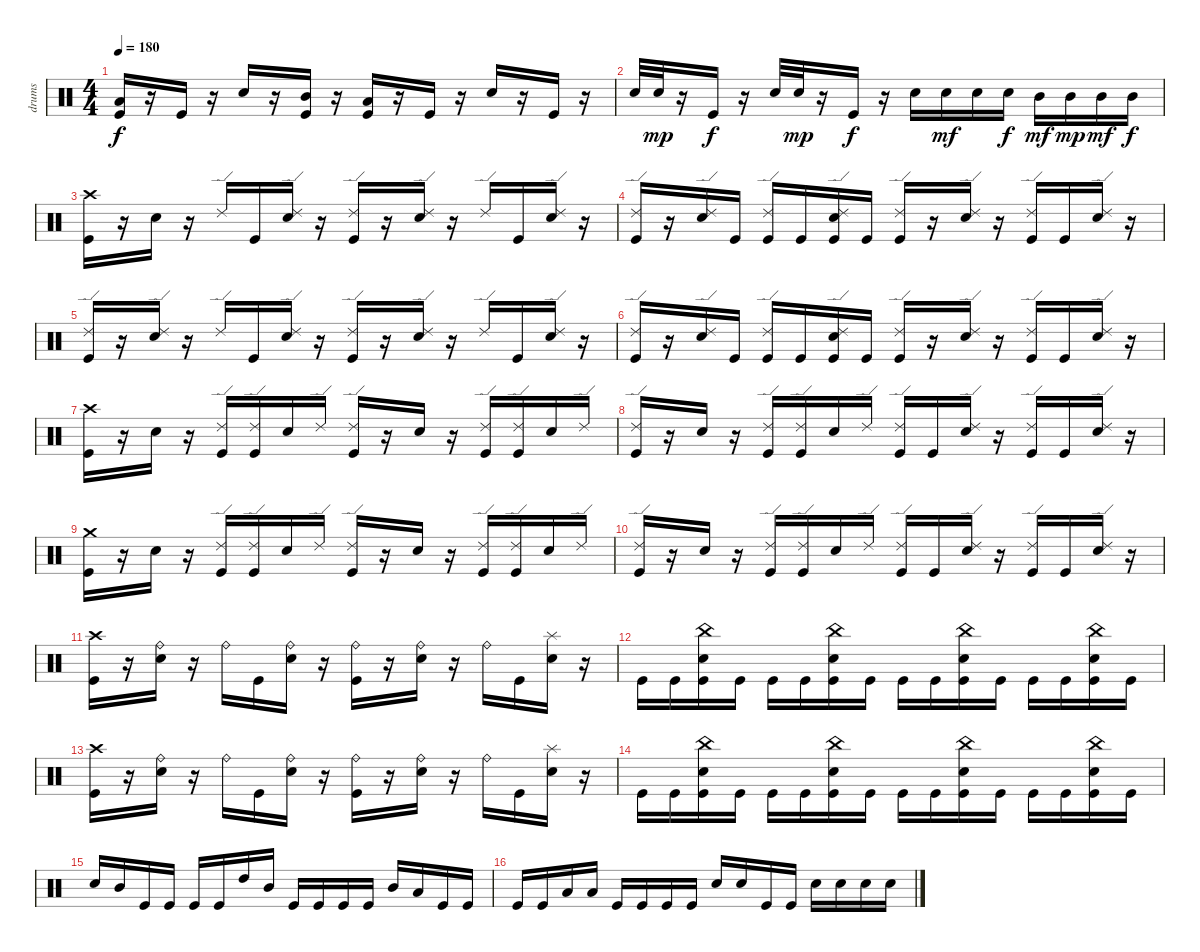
\track ("drums" "drums") {instrument percussion}
\staff {score}
\articulation defaults
\ts (4 4)
\tempo 180
\clef neutral
\ks c
("Low Tom (hit)" "Kick (hit)").16{dy f} r.16 "Kick (hit)".16 r.16 "Snare (hit) 2".16 r.16 ("Mid Tom (hit)" "Kick (hit)").16 r.16 ("Low Tom (hit)" "Kick (hit)").16 r.16 "Kick (hit)".16 r.16 "Snare (hit) 2".16 r.16 "Kick (hit)".16 r.16 |
"Snare (hit) 2".32 "Snare (hit) 2".32{dy mp} r.16 "Kick (hit)".16{dy f} r.16 "Snare (hit) 2".32 "Snare (hit) 2".32{dy mp} r.16 "Kick (hit)".16{dy f} r.16 "Snare (hit) 2".16 "Snare (hit) 2".16{dy mf} "Snare (hit) 2".16 "Snare (hit) 2".16{dy f} "Mid Tom (hit)".16{dy mf} "Mid Tom (hit)".16{dy mp} "Mid Tom (hit)".16{dy mf} "Mid Tom (hit)".16{dy f} |
("Crash high (hit)" "Kick (hit)").16 r.16 "Snare (hit) 2".16 r.16 "Ride (edge) 2".16 "Kick (hit)".16 ("Ride (edge) 2" "Snare (hit) 2").16 r.16 ("Kick (hit)" "Ride (edge) 2").16 r.16 ("Snare (hit) 2" "Ride (edge) 2").16 r.16 "Ride (edge) 2".16 "Kick (hit)".16 ("Snare (hit) 2" "Ride (edge) 2").16 r.16 |
("Ride (edge) 2" "Kick (hit)").16 r.16 ("Ride (edge) 2" "Snare (hit) 2").16 "Kick (hit)".16 ("Kick (hit)" "Ride (edge) 2").16 "Kick (hit)".16 ("Kick (hit)" "Ride (edge) 2" "Snare (hit) 2").16 "Kick (hit)".16 ("Kick (hit)" "Ride (edge) 2").16 r.16 ("Ride (edge) 2" "Snare (hit) 2").16 r.16 ("Kick (hit)" "Ride (edge) 2").16 "Kick (hit)".16 ("Ride (edge) 2" "Snare (hit) 2").16 r.16 |
("Ride (edge) 2" "Kick (hit)").16 r.16 ("Ride (edge) 2" "Snare (hit) 2").16 r.16 "Ride (edge) 2".16 "Kick (hit)".16 ("Ride (edge) 2" "Snare (hit) 2").16 r.16 ("Kick (hit)" "Ride (edge) 2").16 r.16 ("Snare (hit) 2" "Ride (edge) 2").16 r.16 "Ride (edge) 2".16 "Kick (hit)".16 ("Snare (hit) 2" "Ride (edge) 2").16 r.16 |
("Ride (edge) 2" "Kick (hit)").16 r.16 ("Ride (edge) 2" "Snare (hit) 2").16 "Kick (hit)".16 ("Kick (hit)" "Ride (edge) 2").16 "Kick (hit)".16 ("Kick (hit)" "Ride (edge) 2" "Snare (hit) 2").16 "Kick (hit)".16 ("Kick (hit)" "Ride (edge) 2").16 r.16 ("Ride (edge) 2" "Snare (hit) 2").16 r.16 ("Kick (hit)" "Ride (edge) 2").16 "Kick (hit)".16 ("Ride (edge) 2" "Snare (hit) 2").16 r.16 |
("Crash high (hit)" "Kick (hit)").16 r.16 "Snare (hit) 2".16 r.16 ("Ride (edge) 2" "Kick (hit)").16 ("Ride (edge) 2" "Kick (hit)").16 "Snare (hit) 2".16 "Ride (edge) 2".16 ("Ride (edge) 2" "Kick (hit)").16 r.16 "Snare (hit) 2".16 r.16 ("Ride (edge) 2" "Kick (hit)").16 ("Ride (edge) 2" "Kick (hit)").16 "Snare (hit) 2".16 "Ride (edge) 2".16 |
("Kick (hit)" "Ride (edge) 2").16 r.16 "Snare (hit) 2".16 r.16 ("Ride (edge) 2" "Kick (hit)").16 ("Ride (edge) 2" "Kick (hit)").16 "Snare (hit) 2".16 "Ride (edge) 2".16 ("Ride (edge) 2" "Kick (hit)").16 "Kick (hit)".16 ("Ride (edge) 2" "Snare (hit) 2").16 r.16 ("Ride (edge) 2" "Kick (hit)").16 "Kick (hit)".16 ("Ride (edge) 2" "Snare (hit) 2").16 r.16 |
("Crash medium (hit)" "Kick (hit)").16 r.16 "Snare (hit) 2".16 r.16 ("Ride (edge) 2" "Kick (hit)").16 ("Ride (edge) 2" "Kick (hit)").16 "Snare (hit) 2".16 "Ride (edge) 2".16 ("Ride (edge) 2" "Kick (hit)").16 r.16 "Snare (hit) 2".16 r.16 ("Ride (edge) 2" "Kick (hit)").16 ("Ride (edge) 2" "Kick (hit)").16 "Snare (hit) 2".16 "Ride (edge) 2".16 |
("Kick (hit)" "Ride (edge) 2").16 r.16 "Snare (hit) 2".16 r.16 ("Ride (edge) 2" "Kick (hit)").16 ("Ride (edge) 2" "Kick (hit)").16 "Snare (hit) 2".16 "Ride (edge) 2".16 ("Ride (edge) 2" "Kick (hit)").16 "Kick (hit)".16 ("Ride (edge) 2" "Snare (hit) 2").16 r.16 ("Ride (edge) 2" "Kick (hit)").16 "Kick (hit)".16 ("Ride (edge) 2" "Snare (hit) 2").16 r.16 |
("Crash high (hit)" "Kick (hit)").16 r.16 ("Ride (bell)" "Snare (hit) 2").16 r.16 "Ride (bell)".16 "Kick (hit)".16 ("Ride (bell)" "Snare (hit) 2").16 r.16 ("Ride (bell)" "Kick (hit)").16 r.16 ("Ride (bell)" "Snare (hit) 2").16 r.16 "Ride (bell)".16 "Kick (hit)".16 ("Splash (hit)" "Snare (hit) 2").16 r.16 |
"Kick (hit)".16 "Kick (hit)".16 ("China (hit)" "Kick (hit)" "Snare (hit) 2").16 "Kick (hit)".16 "Kick (hit)".16 "Kick (hit)".16 ("China (hit)" "Snare (hit) 2" "Kick (hit)").16 "Kick (hit)".16 "Kick (hit)".16 "Kick (hit)".16 ("China (hit)" "Snare (hit) 2" "Kick (hit)").16 "Kick (hit)".16 "Kick (hit)".16 "Kick (hit)".16 ("China (hit)" "Snare (hit) 2" "Kick (hit)").16 "Kick (hit)".16 |
("Crash high (hit)" "Kick (hit)").16 r.16 ("Ride (bell)" "Snare (hit) 2").16 r.16 "Ride (bell)".16 "Kick (hit)".16 ("Ride (bell)" "Snare (hit) 2").16 r.16 ("Ride (bell)" "Kick (hit)").16 r.16 ("Ride (bell)" "Snare (hit) 2").16 r.16 "Ride (bell)".16 "Kick (hit)".16 ("Splash (hit)" "Snare (hit) 2").16 r.16 |
"Kick (hit)".16 "Kick (hit)".16 ("China (hit)" "Kick (hit)" "Snare (hit) 2").16 "Kick (hit)".16 "Kick (hit)".16 "Kick (hit)".16 ("China (hit)" "Snare (hit) 2" "Kick (hit)").16 "Kick (hit)".16 "Kick (hit)".16 "Kick (hit)".16 ("China (hit)" "Snare (hit) 2" "Kick (hit)").16 "Kick (hit)".16 "Kick (hit)".16 "Kick (hit)".16 ("China (hit)" "Snare (hit) 2" "Kick (hit)").16 "Kick (hit)".16 |
"Snare (hit) 2".16 "Mid Tom (hit)".16 "Kick (hit)".16 "Kick (hit)".16 "Kick (hit)".16 "Kick (hit)".16 "High Tom (hit)".16 "Mid Tom (hit)".16 "Kick (hit)".16 "Kick (hit)".16 "Kick (hit)".16 "Kick (hit)".16 "Mid Tom (hit)".16 "Low Tom (hit)".16 "Kick (hit)".16 "Kick (hit)".16 |
"Kick (hit)".16 "Kick (hit)".16 "Low Tom (hit)".16 "Low Tom (hit)".16 "Kick (hit)".16 "Kick (hit)".16 "Kick (hit)".16 "Kick (hit)".16 "Snare (hit) 2".16 "Snare (hit) 2".16 "Kick (hit)".16 "Kick (hit)".16 "Snare (hit) 2".16 "Snare (hit) 2".16 "Snare (hit) 2".16 "Snare (hit) 2".16
